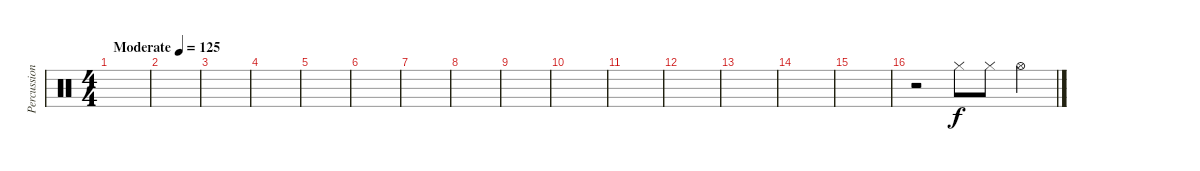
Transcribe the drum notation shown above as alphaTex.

\track ("Percussion" "Percussion") {instrument percussion}
\staff {score}
\articulation defaults
\ts (4 4)
\tempo (125 "Moderate")
\clef neutral
\ks c
|
|
|
|
|
|
|
|
|
|
|
|
|
|
|
r.2 "Hi-Hat (closed)".8 "Hi-Hat (closed)".8 "Hi-Hat (open)".4
